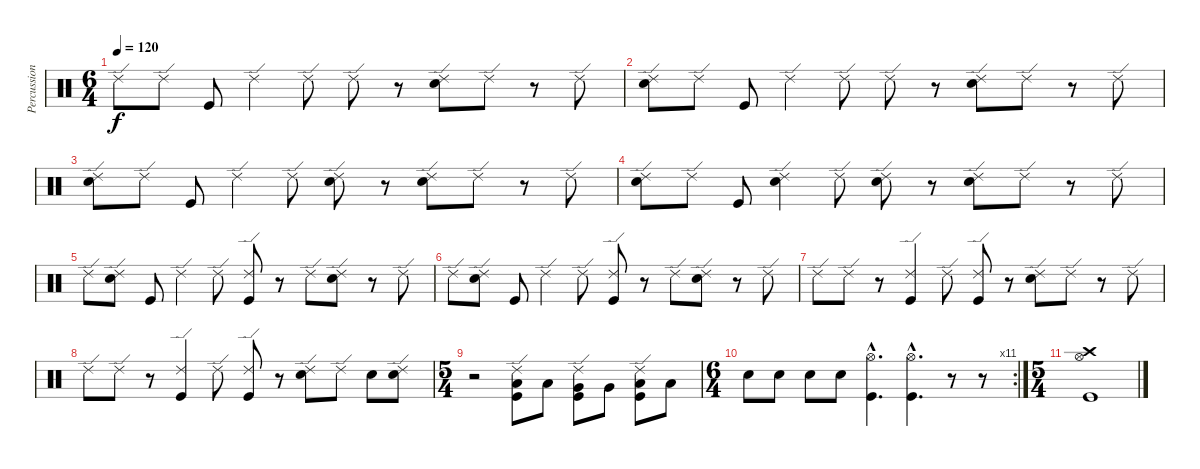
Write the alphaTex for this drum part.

\track ("Percussion" "Percussion") {instrument percussion}
\staff {score}
\articulation defaults
\ts (6 4)
\tempo 120
\clef neutral
\ks c "Ride (edge) 2".8{dy f} "Ride (edge) 2".8 "Kick (hit)".8 "Ride (edge) 2".4 "Ride (edge) 2".8 "Ride (edge) 2".8
r.8 ("Electric Snare (hit)" "Ride (edge) 2").8 "Ride (edge) 2".8 r.8 "Ride (edge) 2".8 |
("Electric Snare (hit)" "Ride (edge) 2").8 "Ride (edge) 2".8 "Kick (hit)".8 "Ride (edge) 2".4 "Ride (edge) 2".8 "Ride (edge) 2".8 r.8 ("Electric Snare (hit)" "Ride (edge) 2").8 "Ride (edge) 2".8 r.8 "Ride (edge) 2".8 |
("Electric Snare (hit)" "Ride (edge) 2").8 "Ride (edge) 2".8 "Kick (hit)".8 "Ride (edge) 2".4 "Ride (edge) 2".8 ("Electric Snare (hit)" "Ride (edge) 2").8 r.8 ("Electric Snare (hit)" "Ride (edge) 2").8 "Ride (edge) 2".8 r.8 "Ride (edge) 2".8 |
("Electric Snare (hit)" "Ride (edge) 2").8 "Ride (edge) 2".8 "Kick (hit)".8 ("Electric Snare (hit)" "Ride (edge) 2").4 "Ride (edge) 2".8 ("Electric Snare (hit)" "Ride (edge) 2").8 r.8 ("Electric Snare (hit)" "Ride (edge) 2").8 "Ride (edge) 2".8 r.8 "Ride (edge) 2".8 |
"Ride (edge) 2".8 ("Electric Snare (hit)" "Ride (edge) 2").8 "Kick (hit)".8 "Ride (edge) 2".4 "Ride (edge) 2".8 ("Kick (hit)" "Ride (edge) 2").8 r.8 "Ride (edge) 2".8 ("Electric Snare (hit)" "Ride (edge) 2").8 r.8 "Ride (edge) 2".8 |
"Ride (edge) 2".8 ("Electric Snare (hit)" "Ride (edge) 2").8 "Kick (hit)".8 "Ride (edge) 2".4 "Ride (edge) 2".8 ("Kick (hit)" "Ride (edge) 2").8 r.8 "Ride (edge) 2".8 ("Electric Snare (hit)" "Ride (edge) 2").8 r.8 "Ride (edge) 2".8 |
"Ride (edge) 2".8 "Ride (edge) 2".8 r.8 ("Kick (hit)" "Ride (edge) 2").4 "Ride (edge) 2".8 ("Kick (hit)" "Ride (edge) 2").8 r.8 ("Electric Snare (hit)" "Ride (edge) 2").8 "Ride (edge) 2".8 r.8 "Ride (edge) 2".8 |
"Ride (edge) 2".8 "Ride (edge) 2".8 r.8 ("Kick (hit)" "Ride (edge) 2").4 "Ride (edge) 2".8 ("Kick (hit)" "Ride (edge) 2").8 r.8 ("Electric Snare (hit)" "Ride (edge) 2").8 "Ride (edge) 2".8 "Electric Snare (hit)".8 ("Electric Snare (hit)" "Ride (edge) 2").8 |
\ts (5 4)
r.2 ("Ride (edge) 2" "Low Tom (hit)" "Kick (hit)").8 "Low Tom (hit)".8 ("Ride (edge) 2" "Very Low Tom (hit)" "Kick (hit)").8 "Very Low Tom (hit)".8 ("Ride (edge) 2" "Low Floor Tom (hit)" "Kick (hit)").8 "Low Floor Tom (hit)".8 |
\rc 11
\ts (6 4)
"Electric Snare (hit)".8 "Electric Snare (hit)".8 "Electric Snare (hit)".8 "Electric Snare (hit)".8 ("Hi-Hat (open)"{hac} "Kick (hit)"{hac}).4{d} ("Hi-Hat (open)"{hac} "Kick (hit)"{hac}).4{d} r.8 r.8 |
\ts (5 4)
("Hi-Hat (open)" "Crash high (hit)" "Kick (hit)").1
